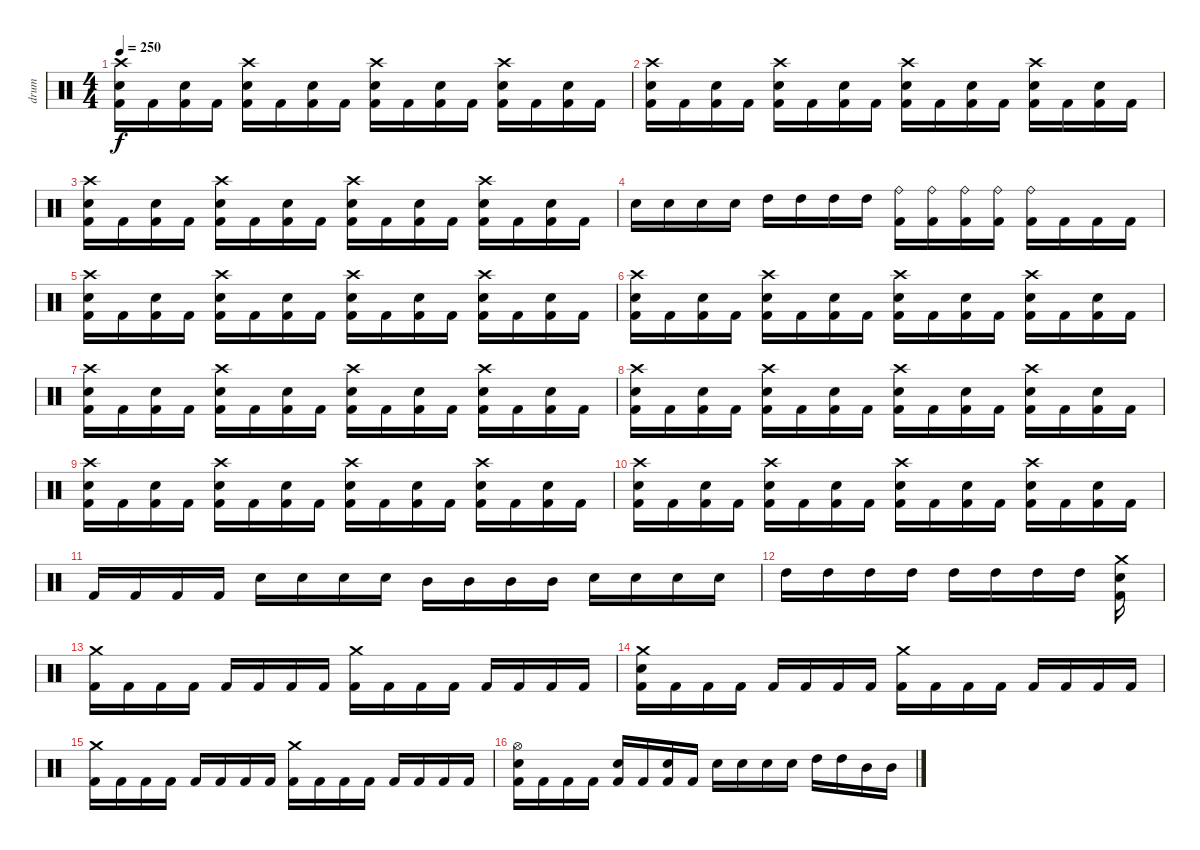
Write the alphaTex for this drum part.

\track ("drum" "drum") {instrument percussion}
\staff {score}
\articulation defaults
\ts (4 4)
\tempo 250
\clef neutral
\ks c
("Crash high (hit)" "Snare (hit) 2" "Kick (hit) 2").16{dy f} "Kick (hit) 2".16 ("Snare (hit) 2" "Kick (hit) 2").16 "Kick (hit) 2".16 ("Crash high (hit)" "Snare (hit) 2" "Kick (hit) 2").16 "Kick (hit) 2".16 ("Snare (hit) 2" "Kick (hit) 2").16 "Kick (hit) 2".16 ("Crash high (hit)" "Snare (hit) 2" "Kick (hit) 2").16 "Kick (hit) 2".16 ("Snare (hit) 2" "Kick (hit) 2").16 "Kick (hit) 2".16 ("Crash high (hit)" "Snare (hit) 2" "Kick (hit) 2").16 "Kick (hit) 2".16 ("Snare (hit) 2" "Kick (hit) 2").16 "Kick (hit) 2".16 |
("Crash high (hit)" "Snare (hit) 2" "Kick (hit) 2").16 "Kick (hit) 2".16 ("Snare (hit) 2" "Kick (hit) 2").16 "Kick (hit) 2".16 ("Crash high (hit)" "Snare (hit) 2" "Kick (hit) 2").16 "Kick (hit) 2".16 ("Snare (hit) 2" "Kick (hit) 2").16 "Kick (hit) 2".16 ("Crash high (hit)" "Snare (hit) 2" "Kick (hit) 2").16 "Kick (hit) 2".16 ("Snare (hit) 2" "Kick (hit) 2").16 "Kick (hit) 2".16 ("Crash high (hit)" "Snare (hit) 2" "Kick (hit) 2").16 "Kick (hit) 2".16 ("Snare (hit) 2" "Kick (hit) 2").16 "Kick (hit) 2".16 |
("Crash high (hit)" "Snare (hit) 2" "Kick (hit) 2").16 "Kick (hit) 2".16 ("Snare (hit) 2" "Kick (hit) 2").16 "Kick (hit) 2".16 ("Crash high (hit)" "Snare (hit) 2" "Kick (hit) 2").16 "Kick (hit) 2".16 ("Snare (hit) 2" "Kick (hit) 2").16 "Kick (hit) 2".16 ("Crash high (hit)" "Snare (hit) 2" "Kick (hit) 2").16 "Kick (hit) 2".16 ("Snare (hit) 2" "Kick (hit) 2").16 "Kick (hit) 2".16 ("Crash high (hit)" "Snare (hit) 2" "Kick (hit) 2").16 "Kick (hit) 2".16 ("Snare (hit) 2" "Kick (hit) 2").16 "Kick (hit) 2".16 |
"Snare (hit) 2".16 "Snare (hit) 2".16 "Snare (hit) 2".16 "Snare (hit) 2".16 "High Tom (hit)".16 "High Tom (hit)".16 "High Tom (hit)".16 "High Tom (hit)".16 ("Ride (bell)" "Kick (hit) 2").16 ("Ride (bell)" "Kick (hit) 2").16 ("Ride (bell)" "Kick (hit) 2").16 ("Ride (bell)" "Kick (hit) 2").16 ("Ride (bell)" "Kick (hit) 2").16 "Kick (hit) 2".16 "Kick (hit) 2".16 "Kick (hit) 2".16 |
("Crash high (hit)" "Snare (hit) 2" "Kick (hit) 2").16 "Kick (hit) 2".16 ("Snare (hit) 2" "Kick (hit) 2").16 "Kick (hit) 2".16 ("Crash high (hit)" "Snare (hit) 2" "Kick (hit) 2").16 "Kick (hit) 2".16 ("Snare (hit) 2" "Kick (hit) 2").16 "Kick (hit) 2".16 ("Crash high (hit)" "Snare (hit) 2" "Kick (hit) 2").16 "Kick (hit) 2".16 ("Snare (hit) 2" "Kick (hit) 2").16 "Kick (hit) 2".16 ("Crash high (hit)" "Snare (hit) 2" "Kick (hit) 2").16 "Kick (hit) 2".16 ("Snare (hit) 2" "Kick (hit) 2").16 "Kick (hit) 2".16 |
("Crash high (hit)" "Snare (hit) 2" "Kick (hit) 2").16 "Kick (hit) 2".16 ("Snare (hit) 2" "Kick (hit) 2").16 "Kick (hit) 2".16 ("Crash high (hit)" "Snare (hit) 2" "Kick (hit) 2").16 "Kick (hit) 2".16 ("Snare (hit) 2" "Kick (hit) 2").16 "Kick (hit) 2".16 ("Crash high (hit)" "Snare (hit) 2" "Kick (hit) 2").16 "Kick (hit) 2".16 ("Snare (hit) 2" "Kick (hit) 2").16 "Kick (hit) 2".16 ("Crash high (hit)" "Snare (hit) 2" "Kick (hit) 2").16 "Kick (hit) 2".16 ("Snare (hit) 2" "Kick (hit) 2").16 "Kick (hit) 2".16 |
("Crash high (hit)" "Snare (hit) 2" "Kick (hit) 2").16 "Kick (hit) 2".16 ("Snare (hit) 2" "Kick (hit) 2").16 "Kick (hit) 2".16 ("Crash high (hit)" "Snare (hit) 2" "Kick (hit) 2").16 "Kick (hit) 2".16 ("Snare (hit) 2" "Kick (hit) 2").16 "Kick (hit) 2".16 ("Crash high (hit)" "Snare (hit) 2" "Kick (hit) 2").16 "Kick (hit) 2".16 ("Snare (hit) 2" "Kick (hit) 2").16 "Kick (hit) 2".16 ("Crash high (hit)" "Snare (hit) 2" "Kick (hit) 2").16 "Kick (hit) 2".16 ("Snare (hit) 2" "Kick (hit) 2").16 "Kick (hit) 2".16 |
("Crash high (hit)" "Snare (hit) 2" "Kick (hit) 2").16 "Kick (hit) 2".16 ("Snare (hit) 2" "Kick (hit) 2").16 "Kick (hit) 2".16 ("Crash high (hit)" "Snare (hit) 2" "Kick (hit) 2").16 "Kick (hit) 2".16 ("Snare (hit) 2" "Kick (hit) 2").16 "Kick (hit) 2".16 ("Crash high (hit)" "Snare (hit) 2" "Kick (hit) 2").16 "Kick (hit) 2".16 ("Snare (hit) 2" "Kick (hit) 2").16 "Kick (hit) 2".16 ("Crash high (hit)" "Snare (hit) 2" "Kick (hit) 2").16 "Kick (hit) 2".16 ("Snare (hit) 2" "Kick (hit) 2").16 "Kick (hit) 2".16 |
("Crash high (hit)" "Snare (hit) 2" "Kick (hit) 2").16 "Kick (hit) 2".16 ("Snare (hit) 2" "Kick (hit) 2").16 "Kick (hit) 2".16 ("Crash high (hit)" "Snare (hit) 2" "Kick (hit) 2").16 "Kick (hit) 2".16 ("Snare (hit) 2" "Kick (hit) 2").16 "Kick (hit) 2".16 ("Crash high (hit)" "Snare (hit) 2" "Kick (hit) 2").16 "Kick (hit) 2".16 ("Snare (hit) 2" "Kick (hit) 2").16 "Kick (hit) 2".16 ("Crash high (hit)" "Snare (hit) 2" "Kick (hit) 2").16 "Kick (hit) 2".16 ("Snare (hit) 2" "Kick (hit) 2").16 "Kick (hit) 2".16 |
("Crash high (hit)" "Snare (hit) 2" "Kick (hit) 2").16 "Kick (hit) 2".16 ("Snare (hit) 2" "Kick (hit) 2").16 "Kick (hit) 2".16 ("Crash high (hit)" "Snare (hit) 2" "Kick (hit) 2").16 "Kick (hit) 2".16 ("Snare (hit) 2" "Kick (hit) 2").16 "Kick (hit) 2".16 ("Crash high (hit)" "Snare (hit) 2" "Kick (hit) 2").16 "Kick (hit) 2".16 ("Snare (hit) 2" "Kick (hit) 2").16 "Kick (hit) 2".16 ("Crash high (hit)" "Snare (hit) 2" "Kick (hit) 2").16 "Kick (hit) 2".16 ("Snare (hit) 2" "Kick (hit) 2").16 "Kick (hit) 2".16 |
"Kick (hit) 2".16 "Kick (hit) 2".16 "Kick (hit) 2".16 "Kick (hit) 2".16 "Snare (hit) 2".16 "Snare (hit) 2".16 "Snare (hit) 2".16 "Snare (hit) 2".16 "Mid Tom (hit)".16 "Mid Tom (hit)".16 "Mid Tom (hit)".16 "Mid Tom (hit)".16 "Snare (hit) 2".16 "Snare (hit) 2".16 "Snare (hit) 2".16 "Snare (hit) 2".16 |
"High Tom (hit)".16 "High Tom (hit)".16 "High Tom (hit)".16 "High Tom (hit)".16 "High Tom (hit)".16 "High Tom (hit)".16 "High Tom (hit)".16 "High Tom (hit)".16 ("Crash medium (hit)" "Snare (hit) 2" "Kick (hit) 2").16 |
("Crash medium (hit)" "Kick (hit) 2").16 "Kick (hit) 2".16 "Kick (hit) 2".16 "Kick (hit) 2".16 "Kick (hit) 2".16 "Kick (hit) 2".16 "Kick (hit) 2".16 "Kick (hit) 2".16 ("Crash medium (hit)" "Kick (hit) 2").16 "Kick (hit) 2".16 "Kick (hit) 2".16 "Kick (hit) 2".16 "Kick (hit) 2".16 "Kick (hit) 2".16 "Kick (hit) 2".16 "Kick (hit) 2".16 |
("Snare (hit) 2" "Crash medium (hit)" "Kick (hit) 2").16 "Kick (hit) 2".16 "Kick (hit) 2".16 "Kick (hit) 2".16 "Kick (hit) 2".16 "Kick (hit) 2".16 "Kick (hit) 2".16 "Kick (hit) 2".16 ("Crash medium (hit)" "Kick (hit) 2").16 "Kick (hit) 2".16 "Kick (hit) 2".16 "Kick (hit) 2".16 "Kick (hit) 2".16 "Kick (hit) 2".16 "Kick (hit) 2".16 "Kick (hit) 2".16 |
("Crash medium (hit)" "Kick (hit) 2").16 "Kick (hit) 2".16 "Kick (hit) 2".16 "Kick (hit) 2".16 "Kick (hit) 2".16 "Kick (hit) 2".16 "Kick (hit) 2".16 "Kick (hit) 2".16 ("Crash medium (hit)" "Kick (hit) 2").16 "Kick (hit) 2".16 "Kick (hit) 2".16 "Kick (hit) 2".16 "Kick (hit) 2".16 "Kick (hit) 2".16 "Kick (hit) 2".16 "Kick (hit) 2".16 |
("Snare (hit) 2" "Hi-Hat (open)" "Kick (hit) 2").16 "Kick (hit) 2".16 "Kick (hit) 2".16 "Kick (hit) 2".16 ("Snare (hit) 2" "Kick (hit) 2").16 "Kick (hit) 2".16 ("Snare (hit) 2" "Kick (hit) 2").16 "Kick (hit) 2".16 "Snare (hit) 2".16 "Snare (hit) 2".16 "Snare (hit) 2".16 "Snare (hit) 2".16 "High Tom (hit)".16 "High Tom (hit)".16 "Mid Tom (hit)".16 "Mid Tom (hit)".16
